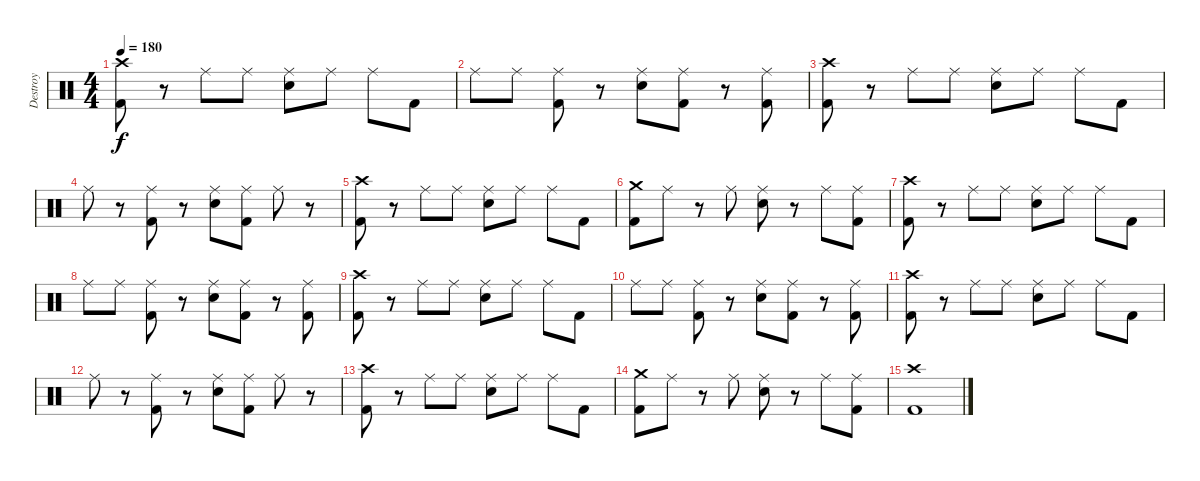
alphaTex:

\track ("Destroy" "Destroy") {instrument percussion}
\staff {score}
\articulation defaults
\ts (4 4)
\tempo 180
\clef neutral
\ks c
("Crash high (hit)" "Kick (hit) 2").8{dy f} r.8 "Ride (middle)".8 "Ride (middle)".8 ("Ride (middle)" "Electric Snare (hit)").8 "Ride (middle)".8 "Ride (middle)".8 "Kick (hit) 2".8 |
"Ride (middle)".8 "Ride (middle)".8 ("Ride (middle)" "Kick (hit) 2").8 r.8 ("Ride (middle)" "Electric Snare (hit)").8 ("Ride (middle)" "Kick (hit) 2").8 r.8 ("Ride (middle)" "Kick (hit) 2").8 |
("Crash high (hit)" "Kick (hit) 2").8 r.8 "Ride (middle)".8 "Ride (middle)".8 ("Ride (middle)" "Electric Snare (hit)").8 "Ride (middle)".8 "Ride (middle)".8 "Kick (hit) 2".8 |
"Ride (middle)".8 r.8 ("Ride (middle)" "Kick (hit) 2").8 r.8 ("Ride (middle)" "Electric Snare (hit)").8 ("Ride (middle)" "Kick (hit) 2").8 "Ride (middle)".8 r.8 |
("Crash high (hit)" "Kick (hit) 2").8 r.8 "Ride (middle)".8 "Ride (middle)".8 ("Ride (middle)" "Electric Snare (hit)").8 "Ride (middle)".8 "Ride (middle)".8 "Kick (hit) 2".8 |
("Crash medium (hit)" "Kick (hit) 2").8 "Ride (middle)".8 r.8 "Ride (middle)".8 ("Ride (middle)" "Electric Snare (hit)").8 r.8 "Ride (middle)".8 ("Ride (middle)" "Kick (hit) 2").8 |
("Crash high (hit)" "Kick (hit) 2").8 r.8 "Ride (middle)".8 "Ride (middle)".8 ("Ride (middle)" "Electric Snare (hit)").8 "Ride (middle)".8 "Ride (middle)".8 "Kick (hit) 2".8 |
"Ride (middle)".8 "Ride (middle)".8 ("Ride (middle)" "Kick (hit) 2").8 r.8 ("Ride (middle)" "Electric Snare (hit)").8 ("Ride (middle)" "Kick (hit) 2").8 r.8 ("Ride (middle)" "Kick (hit) 2").8 |
("Crash high (hit)" "Kick (hit) 2").8 r.8 "Ride (middle)".8 "Ride (middle)".8 ("Ride (middle)" "Electric Snare (hit)").8 "Ride (middle)".8 "Ride (middle)".8 "Kick (hit) 2".8 |
"Ride (middle)".8 "Ride (middle)".8 ("Ride (middle)" "Kick (hit) 2").8 r.8 ("Ride (middle)" "Electric Snare (hit)").8 ("Ride (middle)" "Kick (hit) 2").8 r.8 ("Ride (middle)" "Kick (hit) 2").8 |
("Crash high (hit)" "Kick (hit) 2").8 r.8 "Ride (middle)".8 "Ride (middle)".8 ("Ride (middle)" "Electric Snare (hit)").8 "Ride (middle)".8 "Ride (middle)".8 "Kick (hit) 2".8 |
"Ride (middle)".8 r.8 ("Ride (middle)" "Kick (hit) 2").8 r.8 ("Ride (middle)" "Electric Snare (hit)").8 ("Ride (middle)" "Kick (hit) 2").8 "Ride (middle)".8 r.8 |
("Crash high (hit)" "Kick (hit) 2").8 r.8 "Ride (middle)".8 "Ride (middle)".8 ("Ride (middle)" "Electric Snare (hit)").8 "Ride (middle)".8 "Ride (middle)".8 "Kick (hit) 2".8 |
("Crash medium (hit)" "Kick (hit) 2").8 "Ride (middle)".8 r.8 "Ride (middle)".8 ("Ride (middle)" "Electric Snare (hit)").8 r.8 "Ride (middle)".8 ("Ride (middle)" "Kick (hit) 2").8 |
("Crash high (hit)" "Kick (hit) 2").1
